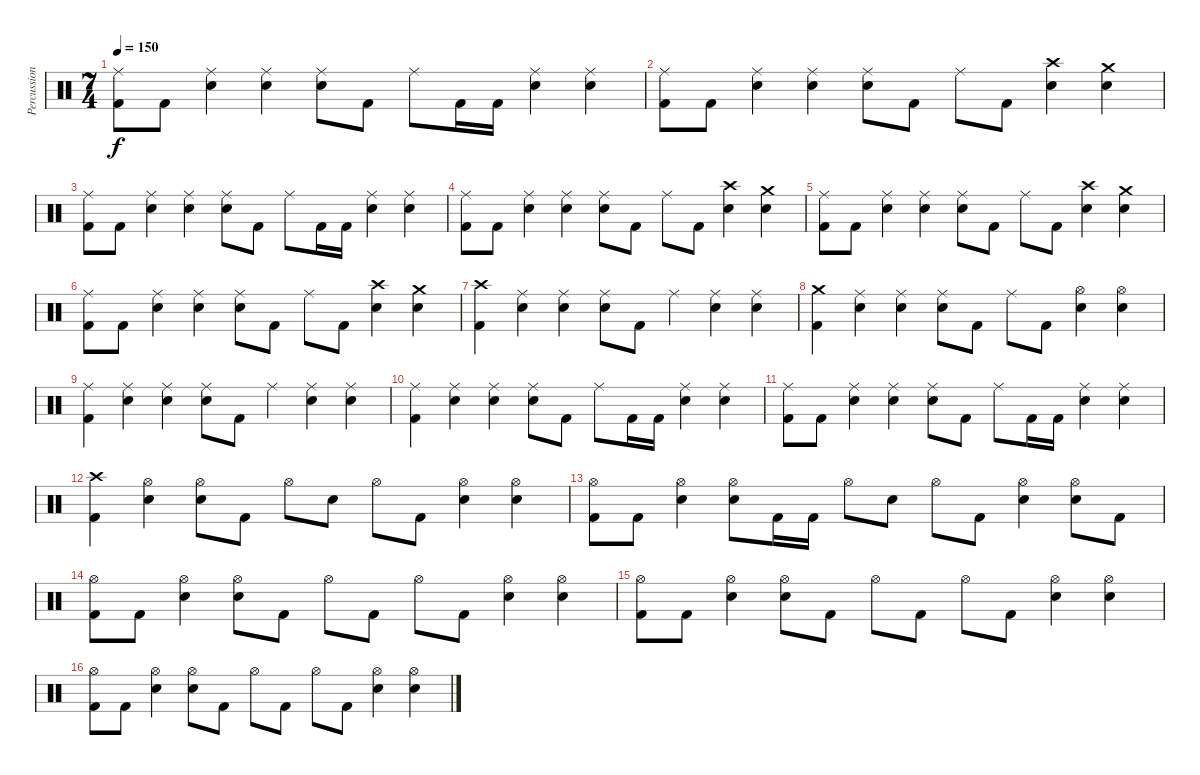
\track ("Percussion" "Percussion") {instrument percussion}
\staff {score}
\articulation defaults
\ts (7 4)
\tempo 150
\clef neutral
\ks c
("Kick (hit) 2" "Ride (middle)").8{dy f} "Kick (hit) 2".8 ("Snare (hit) 2" "Ride (middle)").4 ("Snare (hit) 2" "Ride (middle)").4 ("Snare (hit) 2" "Ride (middle)").8 "Kick (hit) 2".8 "Ride (middle)".8 "Kick (hit) 2".16 "Kick (hit) 2".16 ("Snare (hit) 2" "Ride (middle)").4 ("Snare (hit) 2" "Ride (middle)").4 |
("Kick (hit) 2" "Ride (middle)").8 "Kick (hit) 2".8 ("Snare (hit) 2" "Ride (middle)").4 ("Snare (hit) 2" "Ride (middle)").4 ("Snare (hit) 2" "Ride (middle)").8 "Kick (hit) 2".8 "Ride (middle)".8 "Kick (hit) 2".8 ("Snare (hit) 2" "Crash high (hit)").4 ("Snare (hit) 2" "Crash medium (hit)").4 |
("Kick (hit) 2" "Ride (middle)").8 "Kick (hit) 2".8 ("Snare (hit) 2" "Ride (middle)").4 ("Snare (hit) 2" "Ride (middle)").4 ("Snare (hit) 2" "Ride (middle)").8 "Kick (hit) 2".8 "Ride (middle)".8 "Kick (hit) 2".16 "Kick (hit) 2".16 ("Snare (hit) 2" "Ride (middle)").4 ("Snare (hit) 2" "Ride (middle)").4 |
("Kick (hit) 2" "Ride (middle)").8 "Kick (hit) 2".8 ("Snare (hit) 2" "Ride (middle)").4 ("Snare (hit) 2" "Ride (middle)").4 ("Snare (hit) 2" "Ride (middle)").8 "Kick (hit) 2".8 "Ride (middle)".8 "Kick (hit) 2".8 ("Snare (hit) 2" "Crash high (hit)").4 ("Snare (hit) 2" "Crash medium (hit)").4 |
("Kick (hit) 2" "Ride (middle)").8 "Kick (hit) 2".8 ("Snare (hit) 2" "Ride (middle)").4 ("Snare (hit) 2" "Ride (middle)").4 ("Snare (hit) 2" "Ride (middle)").8 "Kick (hit) 2".8 "Ride (middle)".8 "Kick (hit) 2".8 ("Snare (hit) 2" "Crash high (hit)").4 ("Snare (hit) 2" "Crash medium (hit)").4 |
("Kick (hit) 2" "Ride (middle)").8 "Kick (hit) 2".8 ("Snare (hit) 2" "Ride (middle)").4 ("Snare (hit) 2" "Ride (middle)").4 ("Snare (hit) 2" "Ride (middle)").8 "Kick (hit) 2".8 "Ride (middle)".8 "Kick (hit) 2".8 ("Snare (hit) 2" "Crash high (hit)").4 ("Snare (hit) 2" "Crash medium (hit)").4 |
("Kick (hit) 2" "Crash high (hit)").4 ("Snare (hit) 2" "Ride (middle)").4 ("Snare (hit) 2" "Ride (middle)").4 ("Snare (hit) 2" "Ride (middle)").8 "Kick (hit) 2".8 "Ride (middle)".4 ("Snare (hit) 2" "Ride (middle)").4 ("Snare (hit) 2" "Ride (middle)").4 |
("Kick (hit) 2" "Crash medium (hit)").4 ("Snare (hit) 2" "Ride (middle)").4 ("Snare (hit) 2" "Ride (middle)").4 ("Snare (hit) 2" "Ride (middle)").8 "Kick (hit) 2".8 "Ride (middle)".8 "Kick (hit) 2".8 ("Snare (hit) 2" "Hi-Hat (open)").4 ("Snare (hit) 2" "Hi-Hat (open)").4 |
("Kick (hit) 2" "Ride (middle)").4 ("Snare (hit) 2" "Ride (middle)").4 ("Snare (hit) 2" "Ride (middle)").4 ("Snare (hit) 2" "Ride (middle)").8 "Kick (hit) 2".8 "Ride (middle)".4 ("Snare (hit) 2" "Ride (middle)").4 ("Snare (hit) 2" "Ride (middle)").4 |
("Kick (hit) 2" "Ride (middle)").4 ("Snare (hit) 2" "Ride (middle)").4 ("Snare (hit) 2" "Ride (middle)").4 ("Snare (hit) 2" "Ride (middle)").8 "Kick (hit) 2".8 "Ride (middle)".8 "Kick (hit) 2".16 "Kick (hit) 2".16 ("Snare (hit) 2" "Ride (middle)").4 ("Snare (hit) 2" "Ride (middle)").4 |
("Kick (hit) 2" "Ride (middle)").8 "Kick (hit) 2".8 ("Snare (hit) 2" "Ride (middle)").4 ("Snare (hit) 2" "Ride (middle)").4 ("Snare (hit) 2" "Ride (middle)").8 "Kick (hit) 2".8 "Ride (middle)".8 "Kick (hit) 2".16 "Kick (hit) 2".16 ("Snare (hit) 2" "Ride (middle)").4 ("Snare (hit) 2" "Ride (middle)").4 |
("Kick (hit) 2" "Crash high (hit)").4 ("Snare (hit) 2" "Hi-Hat (open)").4 ("Snare (hit) 2" "Hi-Hat (open)").8 "Kick (hit) 2".8 "Hi-Hat (open)".8 "Snare (hit) 2".8 "Hi-Hat (open)".8 "Kick (hit) 2".8 ("Snare (hit) 2" "Hi-Hat (open)").4 ("Snare (hit) 2" "Hi-Hat (open)").4 |
("Kick (hit) 2" "Hi-Hat (open)").8 "Kick (hit) 2".8 ("Snare (hit) 2" "Hi-Hat (open)").4 ("Snare (hit) 2" "Hi-Hat (open)").8 "Kick (hit) 2".16 "Kick (hit) 2".16 "Hi-Hat (open)".8 "Snare (hit) 2".8 "Hi-Hat (open)".8 "Kick (hit) 2".8 ("Snare (hit) 2" "Hi-Hat (open)").4 ("Snare (hit) 2" "Hi-Hat (open)").8 "Kick (hit) 2".8 |
("Kick (hit) 2" "Hi-Hat (open)").8 "Kick (hit) 2".8 ("Snare (hit) 2" "Hi-Hat (open)").4 ("Snare (hit) 2" "Hi-Hat (open)").8 "Kick (hit) 2".8 "Hi-Hat (open)".8 "Kick (hit) 2".8 "Hi-Hat (open)".8 "Kick (hit) 2".8 ("Snare (hit) 2" "Hi-Hat (open)").4 ("Snare (hit) 2" "Hi-Hat (open)").4 |
("Kick (hit) 2" "Hi-Hat (open)").8 "Kick (hit) 2".8 ("Snare (hit) 2" "Hi-Hat (open)").4 ("Snare (hit) 2" "Hi-Hat (open)").8 "Kick (hit) 2".8 "Hi-Hat (open)".8 "Kick (hit) 2".8 "Hi-Hat (open)".8 "Kick (hit) 2".8 ("Snare (hit) 2" "Hi-Hat (open)").4 ("Snare (hit) 2" "Hi-Hat (open)").4 |
("Kick (hit) 2" "Hi-Hat (open)").8 "Kick (hit) 2".8 ("Snare (hit) 2" "Hi-Hat (open)").4 ("Snare (hit) 2" "Hi-Hat (open)").8 "Kick (hit) 2".8 "Hi-Hat (open)".8 "Kick (hit) 2".8 "Hi-Hat (open)".8 "Kick (hit) 2".8 ("Snare (hit) 2" "Hi-Hat (open)").4 ("Snare (hit) 2" "Hi-Hat (open)").4
